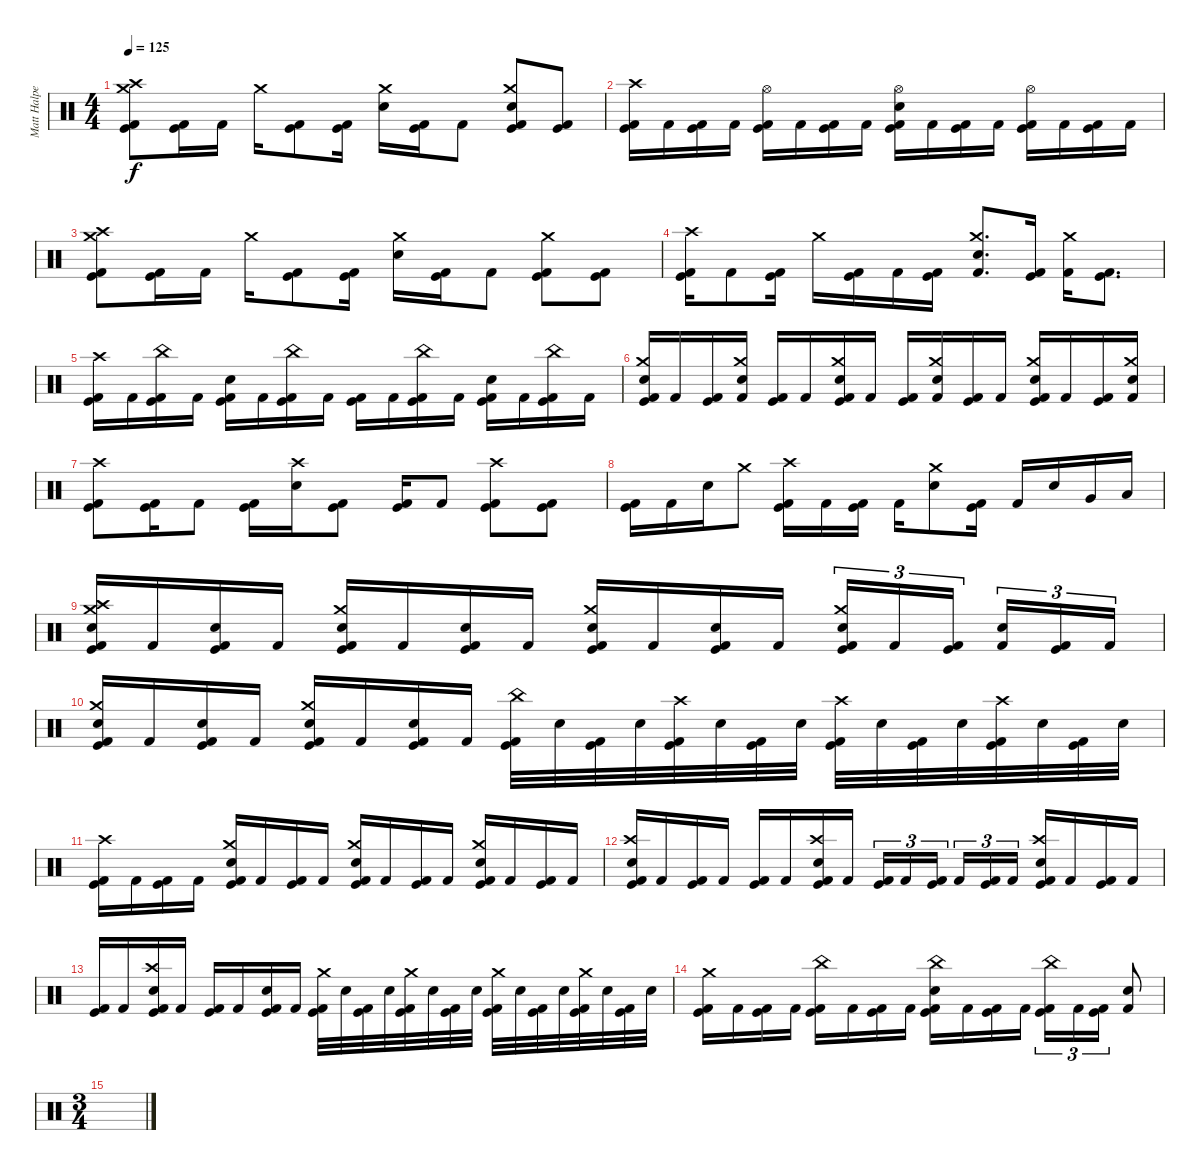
\track ("Matt Halpern" "Matt Halpe") {instrument percussion}
\staff {score}
\articulation defaults
\ts (4 4)
\tempo 125
\clef neutral
\ks c
("Kick (hit) 2" "Kick (hit)" "Crash high (hit)" "Crash medium (hit)").8{dy f} ("Kick (hit) 2" "Kick (hit)").16 "Kick (hit) 2".16 "Crash medium (hit)".16 ("Kick (hit) 2" "Kick (hit)").8 ("Kick (hit) 2" "Kick (hit)").16 ("Electric Snare (hit)" "Crash medium (hit)").16 ("Kick (hit) 2" "Kick (hit)").16 "Kick (hit) 2".8 ("Kick (hit) 2" "Kick (hit)" "Electric Snare (hit)" "Crash medium (hit)").8 ("Kick (hit) 2" "Kick (hit)").8 |
("Kick (hit) 2" "Kick (hit)" "Crash high (hit)").16 "Kick (hit) 2".16 ("Kick (hit) 2" "Kick (hit)").16 "Kick (hit) 2".16 ("Kick (hit) 2" "Kick (hit)" "Hi-Hat (open)").16 "Kick (hit) 2".16 ("Kick (hit) 2" "Kick (hit)").16 "Kick (hit) 2".16 ("Kick (hit) 2" "Kick (hit)" "Electric Snare (hit)" "Hi-Hat (open)").16 "Kick (hit) 2".16 ("Kick (hit) 2" "Kick (hit)").16 "Kick (hit) 2".16 ("Kick (hit) 2" "Kick (hit)" "Hi-Hat (open)").16 "Kick (hit) 2".16 ("Kick (hit) 2" "Kick (hit)").16 "Kick (hit) 2".16 |
("Kick (hit) 2" "Kick (hit)" "Crash high (hit)" "Crash medium (hit)").8 ("Kick (hit) 2" "Kick (hit)").16 "Kick (hit) 2".16 "Crash medium (hit)".16 ("Kick (hit) 2" "Kick (hit)").8 ("Kick (hit) 2" "Kick (hit)").16 ("Electric Snare (hit)" "Crash medium (hit)").16 ("Kick (hit) 2" "Kick (hit)").16 "Kick (hit) 2".8 ("Kick (hit) 2" "Kick (hit)" "Crash medium (hit)").8 ("Kick (hit) 2" "Kick (hit)").8 |
("Kick (hit) 2" "Kick (hit)" "Crash high (hit)").16 "Kick (hit) 2".8 ("Kick (hit) 2" "Kick (hit)").16 "Crash medium (hit)".16 ("Kick (hit) 2" "Kick (hit)").16 "Kick (hit) 2".16 ("Kick (hit) 2" "Kick (hit)").16 ("Kick (hit) 2" "Electric Snare (hit)" "Crash medium (hit)").8{d} ("Kick (hit) 2" "Kick (hit)").16 ("Kick (hit) 2" "Crash medium (hit)").16 ("Kick (hit) 2" "Kick (hit)").8{d} |
("Kick (hit) 2" "Kick (hit)" "Crash high (hit)").16 "Kick (hit) 2".16 ("Kick (hit) 2" "Kick (hit)" "China (hit)").16 "Kick (hit) 2".16 ("Kick (hit) 2" "Kick (hit)" "Electric Snare (hit)").16 "Kick (hit) 2".16 ("Kick (hit) 2" "Kick (hit)" "China (hit)").16 "Kick (hit) 2".16 ("Kick (hit) 2" "Kick (hit)").16 "Kick (hit) 2".16 ("Kick (hit) 2" "Kick (hit)" "China (hit)").16 "Kick (hit) 2".16 ("Kick (hit) 2" "Kick (hit)" "Electric Snare (hit)").16 "Kick (hit) 2".16 ("Kick (hit) 2" "Kick (hit)" "China (hit)").16 "Kick (hit) 2".16 |
("Kick (hit) 2" "Kick (hit)" "Electric Snare (hit)" "Crash medium (hit)").16 "Kick (hit) 2".16 ("Kick (hit) 2" "Kick (hit)").16 ("Kick (hit) 2" "Electric Snare (hit)" "Crash medium (hit)").16 ("Kick (hit) 2" "Kick (hit)").16 "Kick (hit) 2".16 ("Kick (hit) 2" "Kick (hit)" "Electric Snare (hit)" "Crash medium (hit)").16 "Kick (hit) 2".16 ("Kick (hit) 2" "Kick (hit)").16 ("Kick (hit) 2" "Electric Snare (hit)" "Crash medium (hit)").16 ("Kick (hit) 2" "Kick (hit)").16 "Kick (hit) 2".16 ("Kick (hit) 2" "Kick (hit)" "Electric Snare (hit)" "Crash medium (hit)").16 "Kick (hit) 2".16 ("Kick (hit) 2" "Kick (hit)").16 ("Kick (hit) 2" "Electric Snare (hit)" "Crash medium (hit)").16 |
("Kick (hit) 2" "Kick (hit)" "Crash high (hit)").8 ("Kick (hit) 2" "Kick (hit)").16 "Kick (hit) 2".8 ("Kick (hit) 2" "Kick (hit)").16 ("Electric Snare (hit)" "Crash high (hit)").16 ("Kick (hit) 2" "Kick (hit)").8 ("Kick (hit) 2" "Kick (hit)").16 "Kick (hit) 2".8 ("Kick (hit) 2" "Kick (hit)" "Crash high (hit)").8 ("Kick (hit) 2" "Kick (hit)").8 |
("Kick (hit) 2" "Kick (hit)").16 "Kick (hit) 2".16 "Electric Snare (hit)".16 "Crash medium (hit)".8 ("Kick (hit) 2" "Kick (hit)" "Crash high (hit)").16 "Kick (hit) 2".16 ("Kick (hit) 2" "Kick (hit)").16 "Kick (hit) 2".16 ("Electric Snare (hit)" "Crash medium (hit)").8 ("Kick (hit) 2" "Kick (hit)").16 "Kick (hit) 2".16 "Electric Snare (hit)".16 "Very Low Tom (hit)".16 "Low Floor Tom (hit)".16 |
("Kick (hit) 2" "Kick (hit)" "Electric Snare (hit)" "Crash high (hit)" "Crash medium (hit)").16 "Kick (hit) 2".16 ("Kick (hit) 2" "Kick (hit)" "Electric Snare (hit)").16 "Kick (hit) 2".16 ("Kick (hit) 2" "Kick (hit)" "Electric Snare (hit)" "Crash medium (hit)").16 "Kick (hit) 2".16 ("Kick (hit) 2" "Kick (hit)" "Electric Snare (hit)").16 "Kick (hit) 2".16 ("Kick (hit) 2" "Kick (hit)" "Electric Snare (hit)" "Crash medium (hit)").16 "Kick (hit) 2".16 ("Kick (hit) 2" "Kick (hit)" "Electric Snare (hit)").16 "Kick (hit) 2".16 ("Kick (hit) 2" "Kick (hit)" "Electric Snare (hit)" "Crash medium (hit)").16{tu (3 2)} "Kick (hit) 2".16{tu (3 2)} ("Kick (hit) 2" "Kick (hit)").16{tu (3 2) beam splitsecondary} ("Kick (hit) 2" "Electric Snare (hit)").16{tu (3 2)} ("Kick (hit) 2" "Kick (hit)").16{tu (3 2)} "Kick (hit) 2".16{tu (3 2)} |
("Kick (hit) 2" "Kick (hit)" "Electric Snare (hit)" "Crash medium (hit)").16 "Kick (hit) 2".16 ("Kick (hit) 2" "Kick (hit)" "Electric Snare (hit)").16 "Kick (hit) 2".16 ("Kick (hit) 2" "Kick (hit)" "Electric Snare (hit)" "Crash medium (hit)").16 "Kick (hit) 2".16 ("Kick (hit) 2" "Kick (hit)" "Electric Snare (hit)").16 "Kick (hit) 2".16 ("Kick (hit) 2" "Kick (hit)" "China (hit)").32 "Electric Snare (hit)".32 ("Kick (hit) 2" "Kick (hit)").32 "Electric Snare (hit)".32 ("Kick (hit) 2" "Kick (hit)" "Crash high (hit)").32 "Electric Snare (hit)".32 ("Kick (hit) 2" "Kick (hit)").32 "Electric Snare (hit)".32 ("Kick (hit) 2" "Kick (hit)" "Crash high (hit)").32 "Electric Snare (hit)".32 ("Kick (hit) 2" "Kick (hit)").32 "Electric Snare (hit)".32 ("Kick (hit) 2" "Kick (hit)" "Crash high (hit)").32 "Electric Snare (hit)".32 ("Kick (hit) 2" "Kick (hit)").32 "Electric Snare (hit)".32 |
("Kick (hit) 2" "Kick (hit)" "Crash high (hit)").16 "Kick (hit) 2".16 ("Kick (hit) 2" "Kick (hit)").16 "Kick (hit) 2".16 ("Kick (hit) 2" "Kick (hit)" "Electric Snare (hit)" "Crash medium (hit)").16 "Kick (hit) 2".16 ("Kick (hit) 2" "Kick (hit)").16 "Kick (hit) 2".16 ("Kick (hit) 2" "Kick (hit)" "Electric Snare (hit)" "Crash medium (hit)").16 "Kick (hit) 2".16 ("Kick (hit) 2" "Kick (hit)").16 "Kick (hit) 2".16 ("Kick (hit) 2" "Kick (hit)" "Electric Snare (hit)" "Crash medium (hit)").16 "Kick (hit) 2".16 ("Kick (hit) 2" "Kick (hit)").16 "Kick (hit) 2".16 |
("Kick (hit) 2" "Kick (hit)" "Electric Snare (hit)" "Crash high (hit)").16 "Kick (hit) 2".16 ("Kick (hit) 2" "Kick (hit)").16 "Kick (hit) 2".16 ("Kick (hit) 2" "Kick (hit)").16 "Kick (hit) 2".16 ("Kick (hit) 2" "Kick (hit)" "Electric Snare (hit)" "Crash high (hit)").16 "Kick (hit) 2".16 ("Kick (hit) 2" "Kick (hit)").16{tu (3 2)} "Kick (hit) 2".16{tu (3 2)} ("Kick (hit) 2" "Kick (hit)").16{tu (3 2) beam splitsecondary} "Kick (hit) 2".16{tu (3 2)} ("Kick (hit) 2" "Kick (hit)").16{tu (3 2)} "Kick (hit) 2".16{tu (3 2)} ("Kick (hit) 2" "Kick (hit)" "Electric Snare (hit)" "Crash high (hit)").16 "Kick (hit) 2".16 ("Kick (hit) 2" "Kick (hit)").16 "Kick (hit) 2".16 |
("Kick (hit) 2" "Kick (hit)").16 "Kick (hit) 2".16 ("Kick (hit) 2" "Kick (hit)" "Electric Snare (hit)" "Crash high (hit)").16 "Kick (hit) 2".16 ("Kick (hit) 2" "Kick (hit)").16 "Kick (hit) 2".16 ("Kick (hit) 2" "Kick (hit)" "Electric Snare (hit)").16 "Kick (hit) 2".16 ("Kick (hit) 2" "Kick (hit)" "Crash medium (hit)").32 "Electric Snare (hit)".32 ("Kick (hit) 2" "Kick (hit)").32 "Electric Snare (hit)".32 ("Kick (hit) 2" "Kick (hit)" "Crash medium (hit)").32 "Electric Snare (hit)".32 ("Kick (hit) 2" "Kick (hit)").32 "Electric Snare (hit)".32 ("Kick (hit) 2" "Kick (hit)" "Crash medium (hit)").32 "Electric Snare (hit)".32 ("Kick (hit) 2" "Kick (hit)").32 "Electric Snare (hit)".32 ("Kick (hit) 2" "Kick (hit)" "Crash medium (hit)").32 "Electric Snare (hit)".32 ("Kick (hit) 2" "Kick (hit)").32 "Electric Snare (hit)".32 |
("Kick (hit) 2" "Kick (hit)" "Crash medium (hit)").16 "Kick (hit) 2".16 ("Kick (hit) 2" "Kick (hit)").16 "Kick (hit) 2".16 ("Kick (hit) 2" "Kick (hit)" "China (hit)").16 "Kick (hit) 2".16 ("Kick (hit) 2" "Kick (hit)").16 "Kick (hit) 2".16 ("Kick (hit) 2" "Kick (hit)" "Electric Snare (hit)" "China (hit)").16 "Kick (hit) 2".16 ("Kick (hit) 2" "Kick (hit)").16 "Kick (hit) 2".16 ("Kick (hit) 2" "Kick (hit)" "China (hit)").16{tu (3 2)} "Kick (hit) 2".16{tu (3 2)} ("Kick (hit) 2" "Kick (hit)").16{tu (3 2)} ("Kick (hit) 2" "Electric Snare (hit)").8 |
\ts (3 4)
